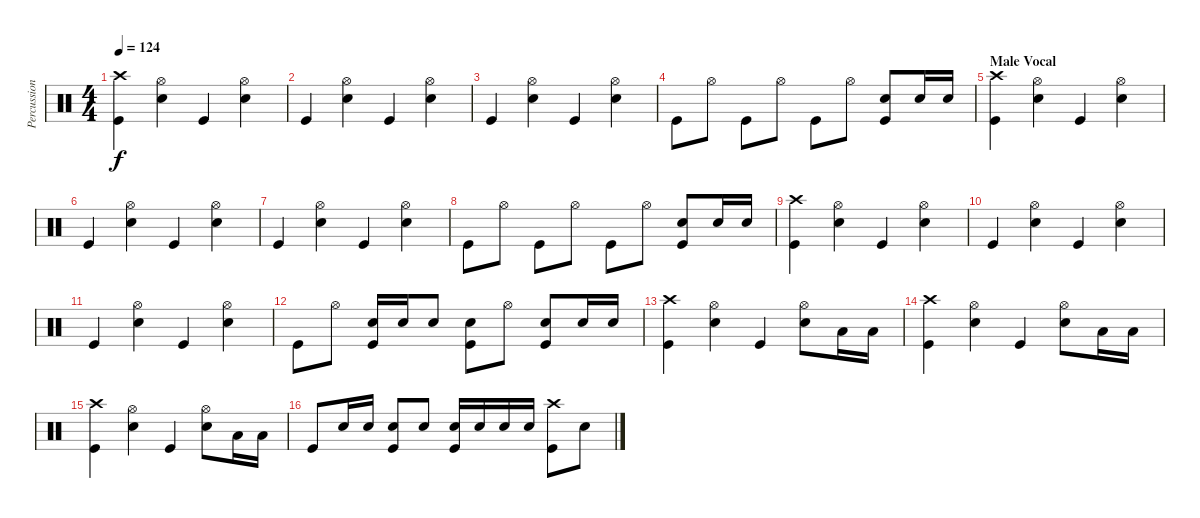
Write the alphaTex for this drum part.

\track ("Percussion" "Percussion") {instrument percussion}
\staff {score}
\articulation defaults
\ts (4 4)
\tempo 124
\clef neutral
\ks c
("Crash high (hit)" "Kick (hit)").4{dy f} ("Hi-Hat (open)" "Snare (hit) 2").4 "Kick (hit)".4 ("Hi-Hat (open)" "Snare (hit) 2").4 |
"Kick (hit)".4 ("Hi-Hat (open)" "Snare (hit) 2").4 "Kick (hit)".4 ("Hi-Hat (open)" "Snare (hit) 2").4 |
"Kick (hit)".4 ("Hi-Hat (open)" "Snare (hit) 2").4 "Kick (hit)".4 ("Hi-Hat (open)" "Snare (hit) 2").4 |
"Kick (hit)".8 "Hi-Hat (open)".8 "Kick (hit)".8 "Hi-Hat (open)".8 "Kick (hit)".8 "Hi-Hat (open)".8 ("Snare (hit) 2" "Kick (hit)").8 "Snare (hit) 2".16 "Snare (hit) 2".16 |
\section ("" "Male Vocal")
("Crash high (hit)" "Kick (hit)").4 ("Hi-Hat (open)" "Snare (hit) 2").4 "Kick (hit)".4 ("Hi-Hat (open)" "Snare (hit) 2").4 |
"Kick (hit)".4 ("Hi-Hat (open)" "Snare (hit) 2").4 "Kick (hit)".4 ("Hi-Hat (open)" "Snare (hit) 2").4 |
"Kick (hit)".4 ("Hi-Hat (open)" "Snare (hit) 2").4 "Kick (hit)".4 ("Hi-Hat (open)" "Snare (hit) 2").4 |
"Kick (hit)".8 "Hi-Hat (open)".8 "Kick (hit)".8 "Hi-Hat (open)".8 "Kick (hit)".8 "Hi-Hat (open)".8 ("Snare (hit) 2" "Kick (hit)").8 "Snare (hit) 2".16 "Snare (hit) 2".16 |
("Crash high (hit)" "Kick (hit)").4 ("Hi-Hat (open)" "Snare (hit) 2").4 "Kick (hit)".4 ("Hi-Hat (open)" "Snare (hit) 2").4 |
"Kick (hit)".4 ("Hi-Hat (open)" "Snare (hit) 2").4 "Kick (hit)".4 ("Hi-Hat (open)" "Snare (hit) 2").4 |
"Kick (hit)".4 ("Hi-Hat (open)" "Snare (hit) 2").4 "Kick (hit)".4 ("Hi-Hat (open)" "Snare (hit) 2").4 |
"Kick (hit)".8 "Hi-Hat (open)".8 ("Snare (hit) 2" "Kick (hit)").16 "Snare (hit) 2".16 "Snare (hit) 2".8 ("Snare (hit) 2" "Kick (hit)").8 "Hi-Hat (open)".8 ("Snare (hit) 2" "Kick (hit)").8 "Snare (hit) 2".16 "Snare (hit) 2".16 |
("Crash high (hit)" "Kick (hit)").4 ("Hi-Hat (open)" "Snare (hit) 2").4 "Kick (hit)".4 ("Hi-Hat (open)" "Snare (hit) 2").8 "Low Tom (hit)".16 "Low Tom (hit)".16 |
("Crash high (hit)" "Kick (hit)").4 ("Hi-Hat (open)" "Snare (hit) 2").4 "Kick (hit)".4 ("Hi-Hat (open)" "Snare (hit) 2").8 "Low Tom (hit)".16 "Low Tom (hit)".16 |
("Crash high (hit)" "Kick (hit)").4 ("Hi-Hat (open)" "Snare (hit) 2").4 "Kick (hit)".4 ("Hi-Hat (open)" "Snare (hit) 2").8 "Low Tom (hit)".16 "Low Tom (hit)".16 |
"Kick (hit)".8 "Snare (hit) 2".16 "Snare (hit) 2".16 ("Snare (hit) 2" "Kick (hit)").8 "Snare (hit) 2".8 ("Snare (hit) 2" "Kick (hit)").16 "Snare (hit) 2".16 "Snare (hit) 2".16 "Snare (hit) 2".16 ("Crash high (hit)" "Kick (hit)").8 "Snare (hit) 2".8
